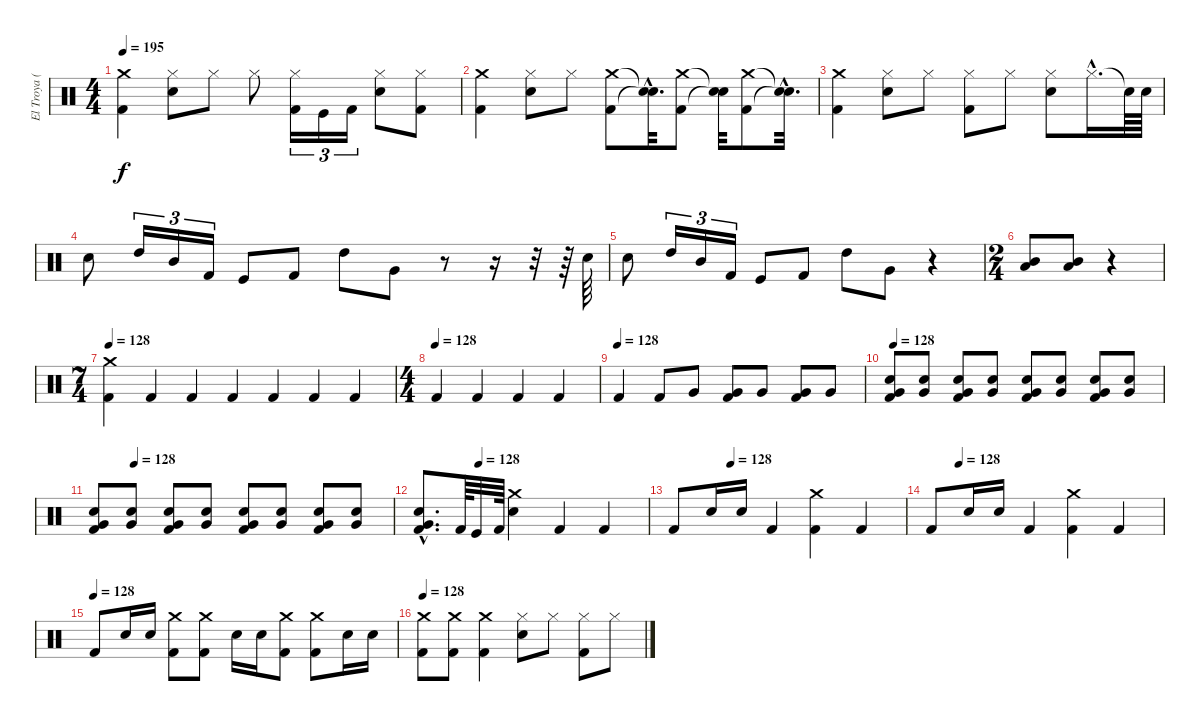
\track ("El Troya (premio)" "El Troya (") {instrument percussion}
\staff {score}
\articulation defaults
\ts (4 4)
\tempo 195
\clef neutral
\ks c
("Kick (hit) 2" "Crash medium (hit)").4{dy f} ("Snare (hit) 2" "Hi-Hat (closed)").8 "Hi-Hat (closed)".8 "Hi-Hat (closed)".8 ("Kick (hit) 2" "Hi-Hat (closed)").16{tu (3 2)} "Kick (hit)".16{tu (3 2)} "Kick (hit) 2".16{tu (3 2)} ("Snare (hit) 2" "Hi-Hat (closed)").8 ("Kick (hit) 2" "Hi-Hat (closed)").8 |
("Kick (hit) 2" "Crash medium (hit)").4 ("Hi-Hat (closed)" "Snare (hit) 2").8 "Hi-Hat (closed)".8 ("Kick (hit) 2" "Crash medium (hit)").8 ("Snare (hit)"{hac t} "Snare (hit)"{hac t}).32{d} ("Kick (hit) 2" "Crash medium (hit)").8 ("Snare (hit)"{t} "Snare (hit)"{t}).32 ("Kick (hit) 2" "Crash medium (hit)").8 ("Snare (hit)"{hac t} "Snare (hit)"{hac t}).32{d} |
("Kick (hit) 2" "Crash medium (hit)").4 ("Hi-Hat (closed)" "Snare (hit) 2").8 "Hi-Hat (closed)".8 ("Hi-Hat (closed)" "Kick (hit) 2").8 "Hi-Hat (closed)".8 ("Snare (hit) 2" "Hi-Hat (closed)").8 "Hi-Hat (closed)"{hac}.16{d} "Snare (hit)"{t}.64 "Snare (hit) 2".64 |
"Snare (hit) 2".8 "High Tom (hit)".16{tu (3 2)} "Mid Tom (hit)".16{tu (3 2)} "Kick (hit) 2".16{tu (3 2)} "Kick (hit)".8 "Kick (hit) 2".8 "High Tom (hit)".8 "Very Low Tom (hit)".8 r.8 r.16 r.32 r.64 "Snare (hit) 2".64 |
"Snare (hit) 2".8 "High Tom (hit)".16{tu (3 2)} "Mid Tom (hit)".16{tu (3 2)} "Kick (hit) 2".16{tu (3 2)} "Kick (hit)".8 "Kick (hit) 2".8 "High Tom (hit)".8 "Very Low Tom (hit)".8 r.4 |
\ts (2 4)
("Mid Tom (hit)" "Low Tom (hit)").8 ("Mid Tom (hit)" "Low Tom (hit)").8 r.4 |
\ts (7 4)
\tempo 128
("Kick (hit) 2" "Crash medium (hit)").4 "Kick (hit) 2".4 "Kick (hit) 2".4 "Kick (hit) 2".4 "Kick (hit) 2".4 "Kick (hit) 2".4 "Kick (hit) 2".4 |
\ts (4 4)
\tempo (128)
"Kick (hit) 2".4 "Kick (hit) 2".4 "Kick (hit) 2".4 "Kick (hit) 2".4 |
\tempo (128)
"Kick (hit) 2".4 "Kick (hit) 2".8 "Very Low Tom (hit)".8 ("Very Low Tom (hit)" "Kick (hit) 2").8 "Very Low Tom (hit)".8 ("Very Low Tom (hit)" "Kick (hit) 2").8 "Very Low Tom (hit)".8 |
\tempo 128
("Snare (hit) 2" "Very Low Tom (hit)" "Kick (hit) 2").8 ("Snare (hit) 2" "Very Low Tom (hit)").8 ("Snare (hit) 2" "Very Low Tom (hit)" "Kick (hit) 2").8 ("Snare (hit) 2" "Very Low Tom (hit)").8 ("Snare (hit) 2" "Very Low Tom (hit)" "Kick (hit) 2").8 ("Snare (hit) 2" "Very Low Tom (hit)").8 ("Snare (hit) 2" "Very Low Tom (hit)" "Kick (hit) 2").8 ("Snare (hit) 2" "Very Low Tom (hit)").8 |
\tempo (128 0.125)
("Snare (hit) 2" "Very Low Tom (hit)" "Kick (hit) 2").8 ("Snare (hit) 2" "Very Low Tom (hit)").8 ("Snare (hit) 2" "Very Low Tom (hit)" "Kick (hit) 2").8 ("Snare (hit) 2" "Very Low Tom (hit)").8 ("Snare (hit) 2" "Very Low Tom (hit)" "Kick (hit) 2").8 ("Snare (hit) 2" "Very Low Tom (hit)").8 ("Snare (hit) 2" "Very Low Tom (hit)" "Kick (hit) 2").8 ("Snare (hit) 2" "Very Low Tom (hit)").8 |
\tempo (128 0.25)
("Kick (hit) 2"{hac} "Snare (hit) 2"{hac} "Very Low Tom (hit)"{hac}).8{d} "Kick (hit) 2".64 "Kick (hit)".32 "Kick (hit) 2".64 ("Crash medium (hit)" "Snare (hit) 2").4 "Kick (hit) 2".4 "Kick (hit) 2".4 |
\tempo (128 0.25)
"Kick (hit) 2".8 "Snare (hit) 2".16 "Snare (hit) 2".16 "Kick (hit) 2".4 ("Crash medium (hit)" "Kick (hit) 2").4 "Kick (hit) 2".4 |
\tempo (128 0.125)
"Kick (hit) 2".8 "Snare (hit) 2".16 "Snare (hit) 2".16 "Kick (hit) 2".4 ("Crash medium (hit)" "Kick (hit) 2").4 "Kick (hit) 2".4 |
\tempo (128)
"Kick (hit) 2".8 "Snare (hit) 2".16 "Snare (hit) 2".16 ("Kick (hit) 2" "Crash medium (hit)").8 ("Kick (hit) 2" "Crash medium (hit)").8 "Snare (hit) 2".16 "Snare (hit) 2".16 ("Kick (hit) 2" "Crash medium (hit)").8 ("Crash medium (hit)" "Kick (hit) 2").8 "Snare (hit) 2".16 "Snare (hit) 2".16 |
\tempo 128
("Kick (hit) 2" "Crash medium (hit)").8 ("Kick (hit) 2" "Crash medium (hit)").8 ("Kick (hit) 2" "Crash medium (hit)").4 ("Hi-Hat (closed)" "Snare (hit) 2").8 "Hi-Hat (closed)".8 ("Kick (hit) 2" "Hi-Hat (closed)").8 "Hi-Hat (closed)".8
